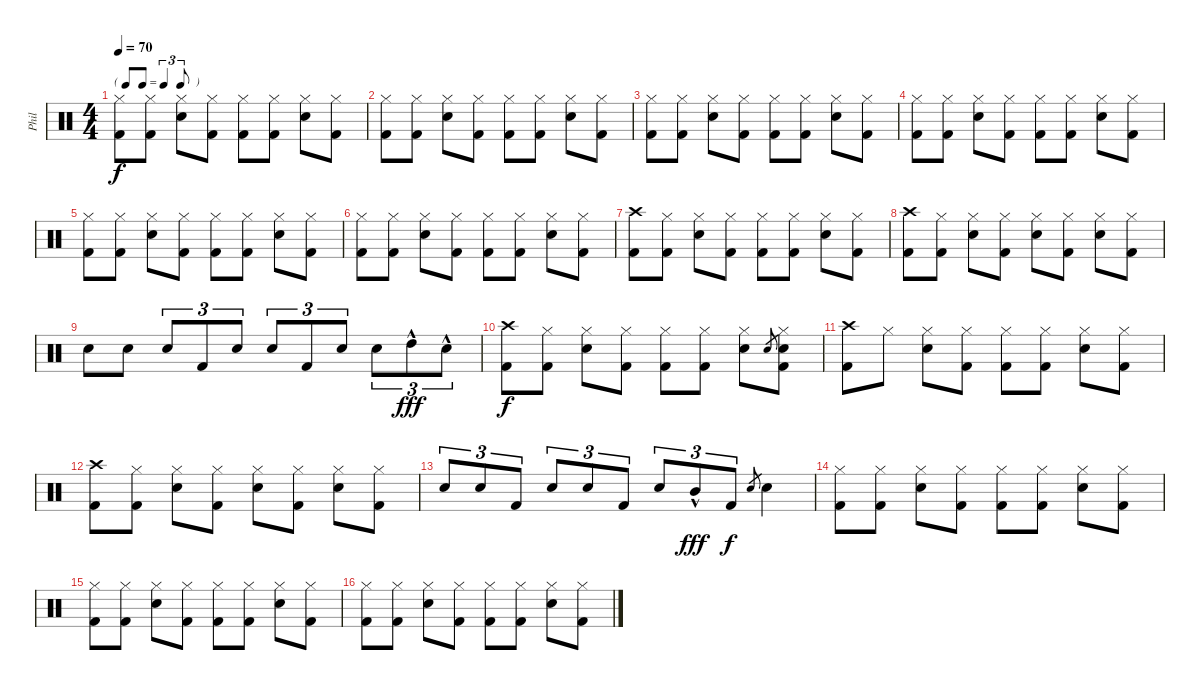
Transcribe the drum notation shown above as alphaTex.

\track ("Phil" "Phil") {instrument percussion}
\staff {score}
\articulation defaults
\ts (4 4)
\tf triplet8th
\tempo 70
\clef neutral
\ks c
("Hi-Hat (closed)" "Kick (hit) 2").8{dy f} ("Hi-Hat (closed)" "Kick (hit) 2").8 ("Hi-Hat (closed)" "Snare (hit) 2").8 ("Hi-Hat (closed)" "Kick (hit) 2").8 ("Hi-Hat (closed)" "Kick (hit) 2").8 ("Hi-Hat (closed)" "Kick (hit) 2").8 ("Hi-Hat (closed)" "Snare (hit) 2").8 ("Hi-Hat (closed)" "Kick (hit) 2").8 |
("Hi-Hat (closed)" "Kick (hit) 2").8 ("Hi-Hat (closed)" "Kick (hit) 2").8 ("Hi-Hat (closed)" "Snare (hit) 2").8 ("Hi-Hat (closed)" "Kick (hit) 2").8 ("Hi-Hat (closed)" "Kick (hit) 2").8 ("Hi-Hat (closed)" "Kick (hit) 2").8 ("Hi-Hat (closed)" "Snare (hit) 2").8 ("Hi-Hat (closed)" "Kick (hit) 2").8 |
("Hi-Hat (closed)" "Kick (hit) 2").8 ("Hi-Hat (closed)" "Kick (hit) 2").8 ("Hi-Hat (closed)" "Snare (hit) 2").8 ("Hi-Hat (closed)" "Kick (hit) 2").8 ("Hi-Hat (closed)" "Kick (hit) 2").8 ("Hi-Hat (closed)" "Kick (hit) 2").8 ("Hi-Hat (closed)" "Snare (hit) 2").8 ("Hi-Hat (closed)" "Kick (hit) 2").8 |
("Hi-Hat (closed)" "Kick (hit) 2").8 ("Hi-Hat (closed)" "Kick (hit) 2").8 ("Hi-Hat (closed)" "Snare (hit) 2").8 ("Hi-Hat (closed)" "Kick (hit) 2").8 ("Hi-Hat (closed)" "Kick (hit) 2").8 ("Hi-Hat (closed)" "Kick (hit) 2").8 ("Hi-Hat (closed)" "Snare (hit) 2").8 ("Hi-Hat (closed)" "Kick (hit) 2").8 |
("Hi-Hat (closed)" "Kick (hit) 2").8 ("Hi-Hat (closed)" "Kick (hit) 2").8 ("Hi-Hat (closed)" "Snare (hit) 2").8 ("Hi-Hat (closed)" "Kick (hit) 2").8 ("Hi-Hat (closed)" "Kick (hit) 2").8 ("Hi-Hat (closed)" "Kick (hit) 2").8 ("Hi-Hat (closed)" "Snare (hit) 2").8 ("Hi-Hat (closed)" "Kick (hit) 2").8 |
("Hi-Hat (closed)" "Kick (hit) 2").8 ("Hi-Hat (closed)" "Kick (hit) 2").8 ("Hi-Hat (closed)" "Snare (hit) 2").8 ("Hi-Hat (closed)" "Kick (hit) 2").8 ("Hi-Hat (closed)" "Kick (hit) 2").8 ("Hi-Hat (closed)" "Kick (hit) 2").8 ("Hi-Hat (closed)" "Snare (hit) 2").8 ("Hi-Hat (closed)" "Kick (hit) 2").8 |
("Crash high (hit)" "Kick (hit) 2").8 ("Hi-Hat (closed)" "Kick (hit) 2").8 ("Hi-Hat (closed)" "Snare (hit) 2").8 ("Hi-Hat (closed)" "Kick (hit) 2").8 ("Hi-Hat (closed)" "Kick (hit) 2").8 ("Hi-Hat (closed)" "Kick (hit) 2").8 ("Hi-Hat (closed)" "Snare (hit) 2").8 ("Hi-Hat (closed)" "Kick (hit) 2").8 |
("Crash high (hit)" "Kick (hit) 2").8 ("Hi-Hat (closed)" "Kick (hit) 2").8 ("Hi-Hat (closed)" "Snare (hit) 2").8 ("Hi-Hat (closed)" "Kick (hit) 2").8 ("Hi-Hat (closed)" "Snare (hit) 2").8 ("Hi-Hat (closed)" "Kick (hit) 2").8 ("Hi-Hat (closed)" "Snare (hit) 2").8 ("Hi-Hat (closed)" "Kick (hit) 2").8 |
"Snare (hit) 2".8 "Snare (hit) 2".8 "Snare (hit) 2".8{tu (3 2)} "Kick (hit) 2".8{tu (3 2)} "Snare (hit) 2".8{tu (3 2)} "Snare (hit) 2".8{tu (3 2)} "Kick (hit) 2".8{tu (3 2)} "Snare (hit) 2".8{tu (3 2)} "Snare (hit) 2".8{tu (3 2)} "High Tom (hit)"{hac}.8{tu (3 2) dy fff} "Snare (hit) 2"{hac}.8{tu (3 2)} |
("Crash high (hit)" "Kick (hit) 2").8{dy f} ("Hi-Hat (closed)" "Kick (hit) 2").8 ("Hi-Hat (closed)" "Snare (hit) 2").8 ("Hi-Hat (closed)" "Kick (hit) 2").8 ("Hi-Hat (closed)" "Kick (hit) 2").8 ("Hi-Hat (closed)" "Kick (hit) 2").8 ("Hi-Hat (closed)" "Snare (hit) 2").8 "Snare (hit) 2".8{gr} ("Hi-Hat (closed)" "Snare (hit) 2" "Kick (hit) 2").8 |
("Crash high (hit)" "Kick (hit) 2").8 "Hi-Hat (closed)".8 ("Hi-Hat (closed)" "Snare (hit) 2").8 ("Hi-Hat (closed)" "Kick (hit) 2").8 ("Hi-Hat (closed)" "Kick (hit) 2").8 ("Hi-Hat (closed)" "Kick (hit) 2").8 ("Hi-Hat (closed)" "Snare (hit) 2").8 ("Hi-Hat (closed)" "Kick (hit) 2").8 |
("Crash high (hit)" "Kick (hit) 2").8 ("Hi-Hat (closed)" "Kick (hit) 2").8 ("Hi-Hat (closed)" "Snare (hit) 2").8 ("Hi-Hat (closed)" "Kick (hit) 2").8 ("Hi-Hat (closed)" "Snare (hit) 2").8 ("Hi-Hat (closed)" "Kick (hit) 2").8 ("Hi-Hat (closed)" "Snare (hit) 2").8 ("Hi-Hat (closed)" "Kick (hit) 2").8 |
"Snare (hit) 2".8{tu (3 2)} "Snare (hit) 2".8{tu (3 2)} "Kick (hit) 2".8{tu (3 2)} "Snare (hit) 2".8{tu (3 2)} "Snare (hit) 2".8{tu (3 2)} "Kick (hit) 2".8{tu (3 2)} "Snare (hit) 2".8{tu (3 2)} "Mid Tom (hit)"{hac}.8{tu (3 2) dy fff} "Kick (hit) 2".8{tu (3 2) dy f} "Snare (hit) 2".8{gr} "Snare (hit) 2".4 |
("Hi-Hat (closed)" "Kick (hit) 2").8 ("Hi-Hat (closed)" "Kick (hit) 2").8 ("Hi-Hat (closed)" "Snare (hit) 2").8 ("Hi-Hat (closed)" "Kick (hit) 2").8 ("Hi-Hat (closed)" "Kick (hit) 2").8 ("Hi-Hat (closed)" "Kick (hit) 2").8 ("Hi-Hat (closed)" "Snare (hit) 2").8 ("Hi-Hat (closed)" "Kick (hit) 2").8 |
("Hi-Hat (closed)" "Kick (hit) 2").8 ("Hi-Hat (closed)" "Kick (hit) 2").8 ("Hi-Hat (closed)" "Snare (hit) 2").8 ("Hi-Hat (closed)" "Kick (hit) 2").8 ("Hi-Hat (closed)" "Kick (hit) 2").8 ("Hi-Hat (closed)" "Kick (hit) 2").8 ("Hi-Hat (closed)" "Snare (hit) 2").8 ("Hi-Hat (closed)" "Kick (hit) 2").8 |
("Hi-Hat (closed)" "Kick (hit) 2").8 ("Hi-Hat (closed)" "Kick (hit) 2").8 ("Hi-Hat (closed)" "Snare (hit) 2").8 ("Hi-Hat (closed)" "Kick (hit) 2").8 ("Hi-Hat (closed)" "Kick (hit) 2").8 ("Hi-Hat (closed)" "Kick (hit) 2").8 ("Hi-Hat (closed)" "Snare (hit) 2").8 ("Hi-Hat (closed)" "Kick (hit) 2").8
